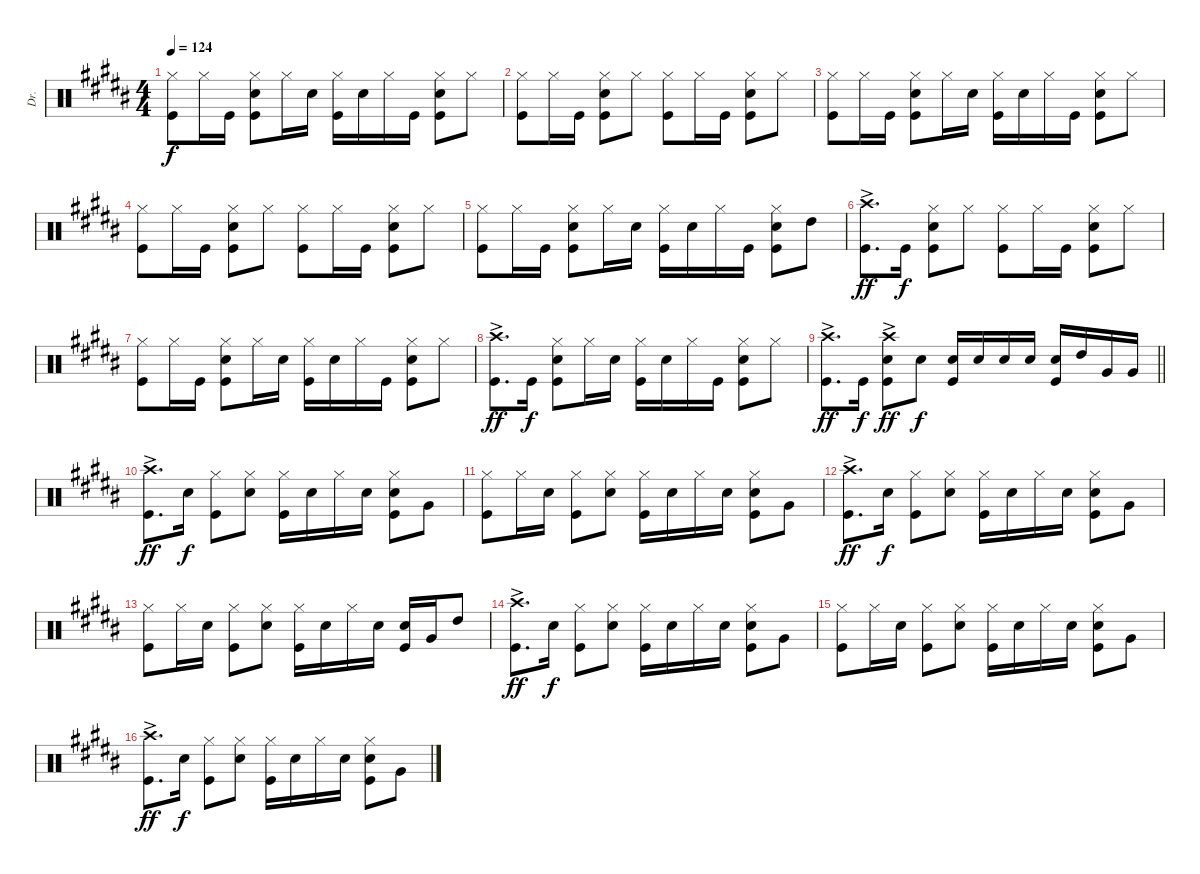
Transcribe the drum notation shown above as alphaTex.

\track ("Dr." "Dr.") {instrument percussion}
\staff {score}
\articulation defaults
\ts (4 4)
\tempo 124
\clef neutral
\ks b
("Hi-Hat (closed)" "Kick (hit)").8{dy f} "Hi-Hat (closed)".16 "Kick (hit)".16 ("Hi-Hat (closed)" "Kick (hit)" "Snare (hit) 2").8 "Hi-Hat (closed)".16 "Snare (hit) 2".16 ("Kick (hit)" "Hi-Hat (closed)").16 "Snare (hit) 2".16 "Hi-Hat (closed)".16 "Kick (hit)".16 ("Hi-Hat (closed)" "Kick (hit)" "Snare (hit) 2").8 "Hi-Hat (closed)".8 |
("Kick (hit)" "Hi-Hat (closed)").8 "Hi-Hat (closed)".16 "Kick (hit)".16 ("Kick (hit)" "Snare (hit) 2" "Hi-Hat (closed)").8 "Hi-Hat (closed)".8 ("Hi-Hat (closed)" "Kick (hit)").8 "Hi-Hat (closed)".16 "Kick (hit)".16 ("Hi-Hat (closed)" "Kick (hit)" "Snare (hit) 2").8 "Hi-Hat (closed)".8 |
("Hi-Hat (closed)" "Kick (hit)").8 "Hi-Hat (closed)".16 "Kick (hit)".16 ("Hi-Hat (closed)" "Kick (hit)" "Snare (hit) 2").8 "Hi-Hat (closed)".16 "Snare (hit) 2".16 ("Kick (hit)" "Hi-Hat (closed)").16 "Snare (hit) 2".16 "Hi-Hat (closed)".16 "Kick (hit)".16 ("Hi-Hat (closed)" "Kick (hit)" "Snare (hit) 2").8 "Hi-Hat (closed)".8 |
("Kick (hit)" "Hi-Hat (closed)").8 "Hi-Hat (closed)".16 "Kick (hit)".16 ("Kick (hit)" "Snare (hit) 2" "Hi-Hat (closed)").8 "Hi-Hat (closed)".8 ("Hi-Hat (closed)" "Kick (hit)").8 "Hi-Hat (closed)".16 "Kick (hit)".16 ("Hi-Hat (closed)" "Kick (hit)" "Snare (hit) 2").8 "Hi-Hat (closed)".8 |
("Hi-Hat (closed)" "Kick (hit)").8 "Hi-Hat (closed)".16 "Kick (hit)".16 ("Hi-Hat (closed)" "Kick (hit)" "Snare (hit) 2").8 "Hi-Hat (closed)".16 "Snare (hit) 2".16 ("Kick (hit)" "Hi-Hat (closed)").16 "Snare (hit) 2".16 "Hi-Hat (closed)".16 "Kick (hit)".16 ("Hi-Hat (closed)" "Kick (hit)" "Snare (hit) 2").8 "High Tom (hit)".8 |
("Crash high (hit)"{ac} "Kick (hit)"{ac}).8{d dy ff} "Kick (hit)".16{dy f} ("Kick (hit)" "Snare (hit) 2" "Hi-Hat (closed)").8 "Hi-Hat (closed)".8 ("Kick (hit)" "Hi-Hat (closed)").8 "Hi-Hat (closed)".16 "Kick (hit)".16 ("Kick (hit)" "Snare (hit) 2" "Hi-Hat (closed)").8 "Hi-Hat (closed)".8 |
("Hi-Hat (closed)" "Kick (hit)").8 "Hi-Hat (closed)".16 "Kick (hit)".16 ("Hi-Hat (closed)" "Kick (hit)" "Snare (hit) 2").8 "Hi-Hat (closed)".16 "Snare (hit) 2".16 ("Kick (hit)" "Hi-Hat (closed)").16 "Snare (hit) 2".16 "Hi-Hat (closed)".16 "Kick (hit)".16 ("Hi-Hat (closed)" "Kick (hit)" "Snare (hit) 2").8 "Hi-Hat (closed)".8 |
("Crash high (hit)"{ac} "Kick (hit)"{ac}).8{d dy ff} "Kick (hit)".16{dy f} ("Kick (hit)" "Snare (hit) 2" "Hi-Hat (closed)").8 "Hi-Hat (closed)".16 "Snare (hit) 2".16 ("Kick (hit)" "Hi-Hat (closed)").16 "Snare (hit) 2".16 "Hi-Hat (closed)".16 "Kick (hit)".16 ("Hi-Hat (closed)" "Kick (hit)" "Snare (hit) 2").8 "Hi-Hat (closed)".8 |
\barLineRight lightlight
("Crash high (hit)"{ac} "Kick (hit)"{ac}).8{d dy ff} "Kick (hit)".16{dy f} ("Crash high (hit)"{ac} "Snare (hit) 2"{ac} "Kick (hit)"{ac}).8{dy ff} "Snare (hit) 2".8{dy f} ("Snare (hit) 2" "Kick (hit)").16 "Snare (hit) 2".16 "Snare (hit) 2".16 "Snare (hit) 2".16 ("Snare (hit) 2" "Kick (hit)").16 "High Tom (hit)".16 "Very Low Tom (hit)".16 "Very Low Tom (hit)".16 |
("Crash high (hit)"{ac} "Kick (hit)"{ac}).8{d dy ff} "Snare (hit) 2".16{dy f} ("Kick (hit)" "Hi-Hat (closed)").8 ("Hi-Hat (closed)" "Snare (hit) 2").8 ("Kick (hit)" "Hi-Hat (closed)").16 "Snare (hit) 2".16 "Hi-Hat (closed)".16 "Snare (hit) 2".16 ("Hi-Hat (closed)" "Kick (hit)" "Snare (hit) 2").8 "Very Low Tom (hit)".8 |
("Kick (hit)" "Hi-Hat (closed)").8 "Hi-Hat (closed)".16 "Snare (hit) 2".16 ("Hi-Hat (closed)" "Kick (hit)").8 ("Hi-Hat (closed)" "Snare (hit) 2").8 ("Kick (hit)" "Hi-Hat (closed)").16 "Snare (hit) 2".16 "Hi-Hat (closed)".16 "Snare (hit) 2".16 ("Hi-Hat (closed)" "Kick (hit)" "Snare (hit) 2").8 "Very Low Tom (hit)".8 |
("Crash high (hit)"{ac} "Kick (hit)"{ac}).8{d dy ff} "Snare (hit) 2".16{dy f} ("Kick (hit)" "Hi-Hat (closed)").8 ("Hi-Hat (closed)" "Snare (hit) 2").8 ("Kick (hit)" "Hi-Hat (closed)").16 "Snare (hit) 2".16 "Hi-Hat (closed)".16 "Snare (hit) 2".16 ("Hi-Hat (closed)" "Kick (hit)" "Snare (hit) 2").8 "Very Low Tom (hit)".8 |
("Kick (hit)" "Hi-Hat (closed)").8 "Hi-Hat (closed)".16 "Snare (hit) 2".16 ("Hi-Hat (closed)" "Kick (hit)").8 ("Hi-Hat (closed)" "Snare (hit) 2").8 ("Kick (hit)" "Hi-Hat (closed)").16 "Snare (hit) 2".16 "Hi-Hat (closed)".16 "Snare (hit) 2".16 ("Kick (hit)" "Snare (hit) 2").16 "Very Low Tom (hit)".16 "High Tom (hit)".8 |
("Crash high (hit)"{ac} "Kick (hit)"{ac}).8{d dy ff} "Snare (hit) 2".16{dy f} ("Kick (hit)" "Hi-Hat (closed)").8 ("Hi-Hat (closed)" "Snare (hit) 2").8 ("Kick (hit)" "Hi-Hat (closed)").16 "Snare (hit) 2".16 "Hi-Hat (closed)".16 "Snare (hit) 2".16 ("Hi-Hat (closed)" "Kick (hit)" "Snare (hit) 2").8 "Very Low Tom (hit)".8 |
("Kick (hit)" "Hi-Hat (closed)").8 "Hi-Hat (closed)".16 "Snare (hit) 2".16 ("Hi-Hat (closed)" "Kick (hit)").8 ("Hi-Hat (closed)" "Snare (hit) 2").8 ("Kick (hit)" "Hi-Hat (closed)").16 "Snare (hit) 2".16 "Hi-Hat (closed)".16 "Snare (hit) 2".16 ("Hi-Hat (closed)" "Kick (hit)" "Snare (hit) 2").8 "Very Low Tom (hit)".8 |
("Crash high (hit)"{ac} "Kick (hit)"{ac}).8{d dy ff} "Snare (hit) 2".16{dy f} ("Kick (hit)" "Hi-Hat (closed)").8 ("Hi-Hat (closed)" "Snare (hit) 2").8 ("Kick (hit)" "Hi-Hat (closed)").16 "Snare (hit) 2".16 "Hi-Hat (closed)".16 "Snare (hit) 2".16 ("Hi-Hat (closed)" "Kick (hit)" "Snare (hit) 2").8 "Very Low Tom (hit)".8
